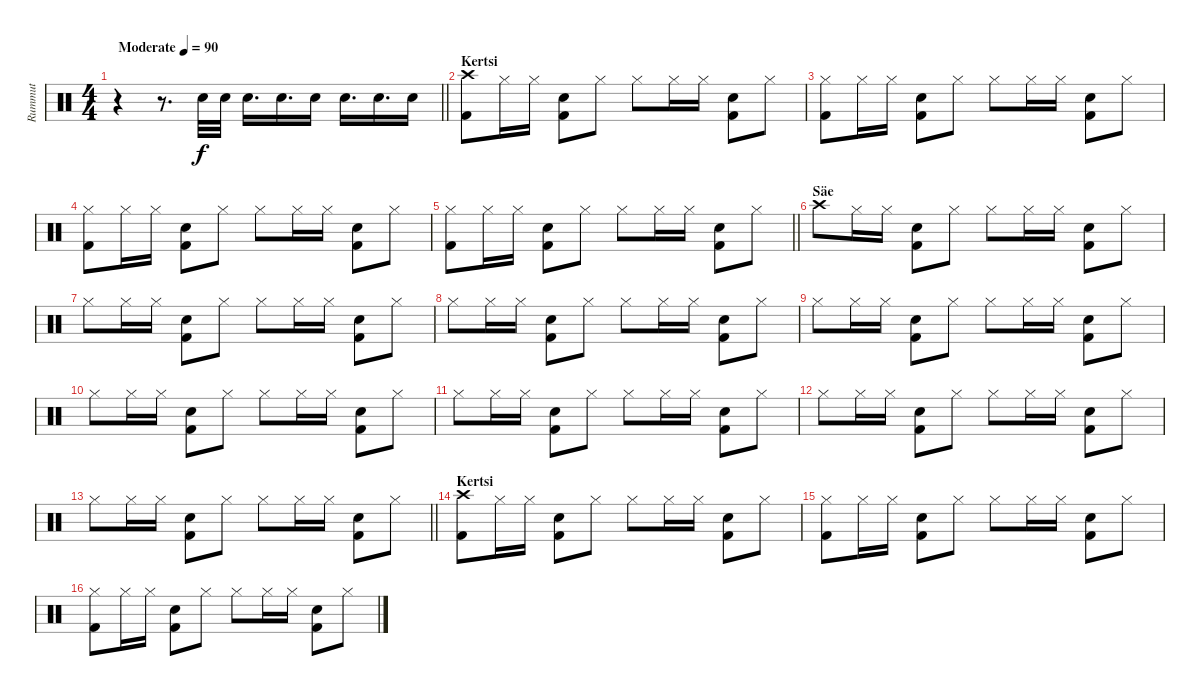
\track ("Rummut" "Rummut") {instrument percussion}
\staff {score}
\articulation defaults
\ts (4 4)
\tempo (90 "Moderate")
\clef neutral
\barLineRight lightlight
\ks c
r.4{dy f} r.8{d} "Snare (hit) 2".32 "Snare (hit) 2".32 "Snare (hit) 2".16{d} "Snare (hit) 2".16{d} "Snare (hit) 2".16 "Snare (hit) 2".16{d} "Snare (hit) 2".16{d} "Snare (hit) 2".16 |
\section ("" "Kertsi")
("Crash high (hit)" "Kick (hit) 2").8 "Hi-Hat (closed)".16 "Hi-Hat (closed)".16 ("Snare (hit) 2" "Kick (hit) 2").8 "Hi-Hat (closed)".8 "Hi-Hat (closed)".8 "Hi-Hat (closed)".16 "Hi-Hat (closed)".16 ("Snare (hit) 2" "Kick (hit) 2").8 "Hi-Hat (closed)".8 |
("Hi-Hat (closed)" "Kick (hit) 2").8 "Hi-Hat (closed)".16 "Hi-Hat (closed)".16 ("Snare (hit) 2" "Kick (hit) 2").8 "Hi-Hat (closed)".8 "Hi-Hat (closed)".8 "Hi-Hat (closed)".16 "Hi-Hat (closed)".16 ("Snare (hit) 2" "Kick (hit) 2").8 "Hi-Hat (closed)".8 |
("Hi-Hat (closed)" "Kick (hit) 2").8 "Hi-Hat (closed)".16 "Hi-Hat (closed)".16 ("Snare (hit) 2" "Kick (hit) 2").8 "Hi-Hat (closed)".8 "Hi-Hat (closed)".8 "Hi-Hat (closed)".16 "Hi-Hat (closed)".16 ("Snare (hit) 2" "Kick (hit) 2").8 "Hi-Hat (closed)".8 |
\barLineRight lightlight
("Hi-Hat (closed)" "Kick (hit) 2").8 "Hi-Hat (closed)".16 "Hi-Hat (closed)".16 ("Snare (hit) 2" "Kick (hit) 2").8 "Hi-Hat (closed)".8 "Hi-Hat (closed)".8 "Hi-Hat (closed)".16 "Hi-Hat (closed)".16 ("Snare (hit) 2" "Kick (hit) 2").8 "Hi-Hat (closed)".8 |
\section ("" "Säe")
"Crash high (hit)".8 "Hi-Hat (closed)".16 "Hi-Hat (closed)".16 ("Snare (hit) 2" "Kick (hit) 2").8 "Hi-Hat (closed)".8 "Hi-Hat (closed)".8 "Hi-Hat (closed)".16 "Hi-Hat (closed)".16 ("Snare (hit) 2" "Kick (hit) 2").8 "Hi-Hat (closed)".8 |
"Hi-Hat (closed)".8 "Hi-Hat (closed)".16 "Hi-Hat (closed)".16 ("Snare (hit) 2" "Kick (hit) 2").8 "Hi-Hat (closed)".8 "Hi-Hat (closed)".8 "Hi-Hat (closed)".16 "Hi-Hat (closed)".16 ("Snare (hit) 2" "Kick (hit) 2").8 "Hi-Hat (closed)".8 |
"Hi-Hat (closed)".8 "Hi-Hat (closed)".16 "Hi-Hat (closed)".16 ("Snare (hit) 2" "Kick (hit) 2").8 "Hi-Hat (closed)".8 "Hi-Hat (closed)".8 "Hi-Hat (closed)".16 "Hi-Hat (closed)".16 ("Snare (hit) 2" "Kick (hit) 2").8 "Hi-Hat (closed)".8 |
"Hi-Hat (closed)".8 "Hi-Hat (closed)".16 "Hi-Hat (closed)".16 ("Snare (hit) 2" "Kick (hit) 2").8 "Hi-Hat (closed)".8 "Hi-Hat (closed)".8 "Hi-Hat (closed)".16 "Hi-Hat (closed)".16 ("Snare (hit) 2" "Kick (hit) 2").8 "Hi-Hat (closed)".8 |
"Hi-Hat (closed)".8 "Hi-Hat (closed)".16 "Hi-Hat (closed)".16 ("Snare (hit) 2" "Kick (hit) 2").8 "Hi-Hat (closed)".8 "Hi-Hat (closed)".8 "Hi-Hat (closed)".16 "Hi-Hat (closed)".16 ("Snare (hit) 2" "Kick (hit) 2").8 "Hi-Hat (closed)".8 |
"Hi-Hat (closed)".8 "Hi-Hat (closed)".16 "Hi-Hat (closed)".16 ("Snare (hit) 2" "Kick (hit) 2").8 "Hi-Hat (closed)".8 "Hi-Hat (closed)".8 "Hi-Hat (closed)".16 "Hi-Hat (closed)".16 ("Snare (hit) 2" "Kick (hit) 2").8 "Hi-Hat (closed)".8 |
"Hi-Hat (closed)".8 "Hi-Hat (closed)".16 "Hi-Hat (closed)".16 ("Snare (hit) 2" "Kick (hit) 2").8 "Hi-Hat (closed)".8 "Hi-Hat (closed)".8 "Hi-Hat (closed)".16 "Hi-Hat (closed)".16 ("Snare (hit) 2" "Kick (hit) 2").8 "Hi-Hat (closed)".8 |
\barLineRight lightlight "Hi-Hat (closed)".8 "Hi-Hat (closed)".16 "Hi-Hat (closed)".16
("Snare (hit) 2" "Kick (hit) 2").8 "Hi-Hat (closed)".8 "Hi-Hat (closed)".8 "Hi-Hat (closed)".16 "Hi-Hat (closed)".16 ("Snare (hit) 2" "Kick (hit) 2").8 "Hi-Hat (closed)".8 |
\section ("" "Kertsi")
("Crash high (hit)" "Kick (hit) 2").8 "Hi-Hat (closed)".16 "Hi-Hat (closed)".16 ("Snare (hit) 2" "Kick (hit) 2").8 "Hi-Hat (closed)".8 "Hi-Hat (closed)".8 "Hi-Hat (closed)".16 "Hi-Hat (closed)".16 ("Snare (hit) 2" "Kick (hit) 2").8 "Hi-Hat (closed)".8 |
("Hi-Hat (closed)" "Kick (hit) 2").8 "Hi-Hat (closed)".16 "Hi-Hat (closed)".16 ("Snare (hit) 2" "Kick (hit) 2").8 "Hi-Hat (closed)".8 "Hi-Hat (closed)".8 "Hi-Hat (closed)".16 "Hi-Hat (closed)".16 ("Snare (hit) 2" "Kick (hit) 2").8 "Hi-Hat (closed)".8 |
("Hi-Hat (closed)" "Kick (hit) 2").8 "Hi-Hat (closed)".16 "Hi-Hat (closed)".16 ("Snare (hit) 2" "Kick (hit) 2").8 "Hi-Hat (closed)".8 "Hi-Hat (closed)".8 "Hi-Hat (closed)".16 "Hi-Hat (closed)".16 ("Snare (hit) 2" "Kick (hit) 2").8 "Hi-Hat (closed)".8
